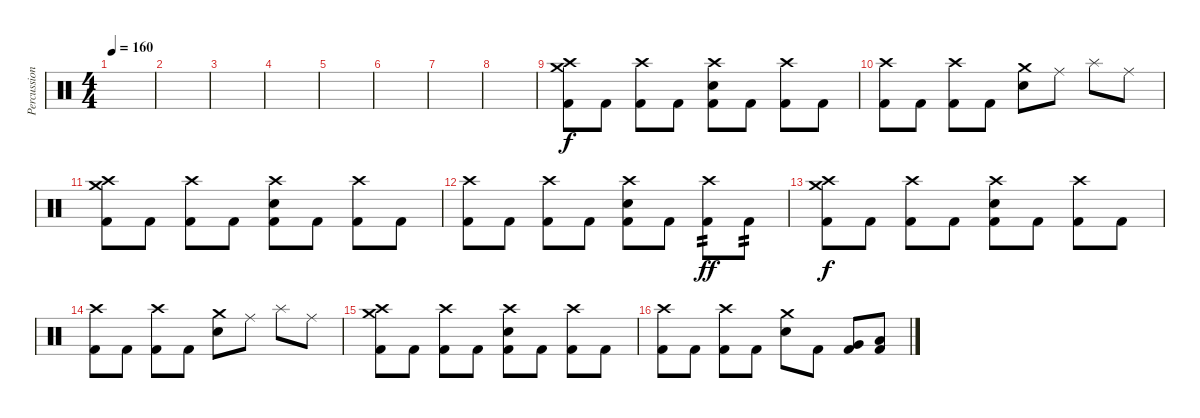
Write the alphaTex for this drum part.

\track ("Percussion" "Percussion") {instrument percussion}
\staff {score}
\articulation defaults
\ts (4 4)
\tempo 160
\clef neutral
\ks c
|
|
|
|
|
|
|
|
("Crash high (hit)" "Crash medium (hit)" "Kick (hit) 2").8 "Kick (hit) 2".8 ("Crash high (hit)" "Kick (hit) 2").8 "Kick (hit) 2".8 ("Crash high (hit)" "Snare (hit) 2" "Kick (hit) 2").8 "Kick (hit) 2".8 ("Crash high (hit)" "Kick (hit) 2").8 "Kick (hit) 2".8 |
("Crash high (hit)" "Kick (hit) 2").8 "Kick (hit) 2".8 ("Crash high (hit)" "Kick (hit) 2").8 "Kick (hit) 2".8 ("Crash medium (hit)" "Snare (hit) 2").8 "Ride (middle)".8 "Splash (hit)".8 "Ride (middle)".8 |
("Crash high (hit)" "Crash medium (hit)" "Kick (hit) 2").8 "Kick (hit) 2".8 ("Crash high (hit)" "Kick (hit) 2").8 "Kick (hit) 2".8 ("Crash high (hit)" "Snare (hit) 2" "Kick (hit) 2").8 "Kick (hit) 2".8 ("Crash high (hit)" "Kick (hit) 2").8 "Kick (hit) 2".8 |
("Crash high (hit)" "Kick (hit) 2").8 "Kick (hit) 2".8 ("Crash high (hit)" "Kick (hit) 2").8 "Kick (hit) 2".8 ("Crash high (hit)" "Snare (hit) 2" "Kick (hit) 2").8 "Kick (hit) 2".8 ("Crash high (hit)" "Kick (hit) 2").8{tp 2 dy ff} "Kick (hit) 2".8{tp 2} |
("Crash high (hit)" "Crash medium (hit)" "Kick (hit) 2").8{dy f} "Kick (hit) 2".8 ("Crash high (hit)" "Kick (hit) 2").8 "Kick (hit) 2".8 ("Crash high (hit)" "Snare (hit) 2" "Kick (hit) 2").8 "Kick (hit) 2".8 ("Crash high (hit)" "Kick (hit) 2").8 "Kick (hit) 2".8 |
("Crash high (hit)" "Kick (hit) 2").8 "Kick (hit) 2".8 ("Crash high (hit)" "Kick (hit) 2").8 "Kick (hit) 2".8 ("Crash medium (hit)" "Snare (hit) 2").8 "Ride (middle)".8 "Splash (hit)".8 "Ride (middle)".8 |
("Crash high (hit)" "Crash medium (hit)" "Kick (hit) 2").8 "Kick (hit) 2".8 ("Crash high (hit)" "Kick (hit) 2").8 "Kick (hit) 2".8 ("Crash high (hit)" "Snare (hit) 2" "Kick (hit) 2").8 "Kick (hit) 2".8 ("Crash high (hit)" "Kick (hit) 2").8 "Kick (hit) 2".8 |
("Crash high (hit)" "Kick (hit) 2").8 "Kick (hit) 2".8 ("Crash high (hit)" "Kick (hit) 2").8 "Kick (hit) 2".8 ("Crash medium (hit)" "Snare (hit) 2").8 "Kick (hit) 2".8 ("Very Low Tom (hit)" "Kick (hit) 2").8 ("Low Floor Tom (hit)" "Kick (hit) 2").8
